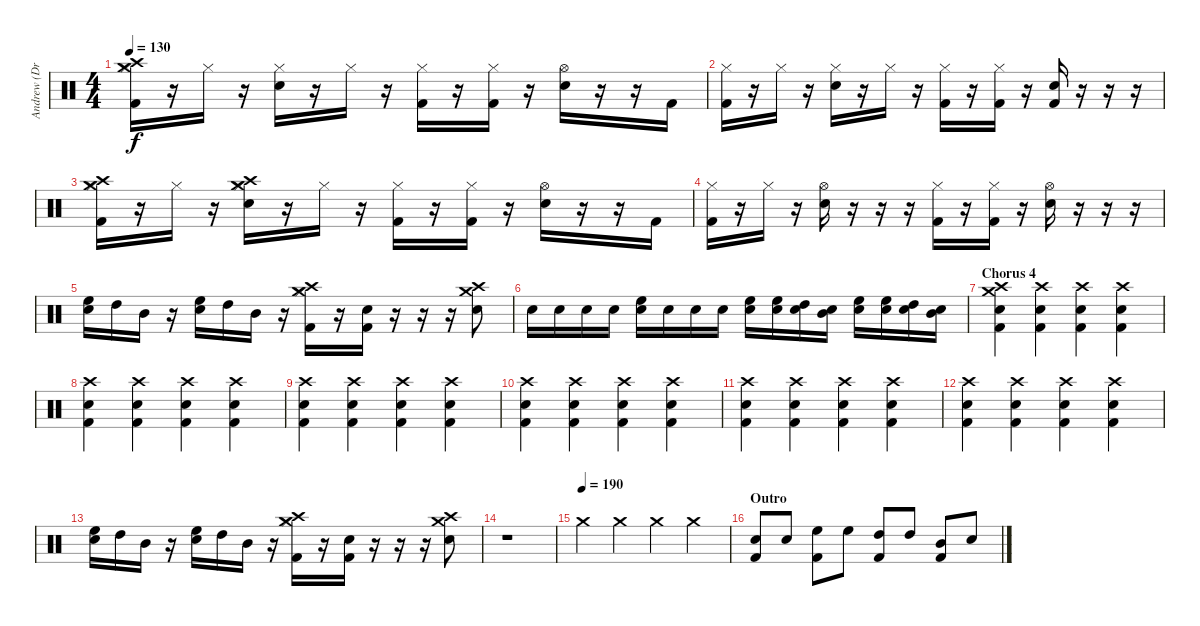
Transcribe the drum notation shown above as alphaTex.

\track ("Andrew (Drums)" "Andrew (Dr") {instrument percussion}
\staff {score}
\articulation defaults
\ts (4 4)
\tempo 130
\clef neutral
\ks c
("Crash high (hit)" "Crash medium (hit)" "Hi-Hat (closed)" "Kick (hit) 2").16{dy f} r.16 "Hi-Hat (closed)".16 r.16 ("Hi-Hat (closed)" "Snare (hit) 2").16 r.16 "Hi-Hat (closed)".16 r.16 ("Hi-Hat (closed)" "Kick (hit) 2").16 r.16 ("Hi-Hat (closed)" "Kick (hit) 2").16 r.16 ("Hi-Hat (open)" "Snare (hit) 2").16 r.16 r.16 "Kick (hit) 2".16 |
("Hi-Hat (closed)" "Kick (hit) 2").16 r.16 "Hi-Hat (closed)".16 r.16 ("Hi-Hat (closed)" "Snare (hit) 2").16 r.16 "Hi-Hat (closed)".16 r.16 ("Hi-Hat (closed)" "Kick (hit) 2").16 r.16 ("Hi-Hat (closed)" "Kick (hit) 2").16 r.16 ("Snare (hit) 2" "Kick (hit) 2").16 r.16 r.16 r.16 |
("Crash high (hit)" "Crash medium (hit)" "Hi-Hat (closed)" "Kick (hit) 2").16 r.16 "Hi-Hat (closed)".16 r.16 ("Crash high (hit)" "Crash medium (hit)" "Hi-Hat (closed)" "Snare (hit) 2").16 r.16 "Hi-Hat (closed)".16 r.16 ("Hi-Hat (closed)" "Kick (hit) 2").16 r.16 ("Hi-Hat (closed)" "Kick (hit) 2").16 r.16 ("Hi-Hat (open)" "Snare (hit) 2").16 r.16 r.16 "Kick (hit) 2".16 |
("Hi-Hat (closed)" "Kick (hit) 2").16 r.16 "Hi-Hat (closed)".16 r.16 ("Hi-Hat (open)" "Snare (hit) 2").16 r.16 r.16 r.16 ("Hi-Hat (closed)" "Kick (hit) 2").16 r.16 ("Hi-Hat (closed)" "Kick (hit) 2").16 r.16 ("Hi-Hat (open)" "Snare (hit) 2").16 r.16 r.16 r.16 |
("High Floor Tom (hit)" "Snare (hit) 2").16 "High Tom (hit)".16 "Mid Tom (hit)".16 r.16 ("High Floor Tom (hit)" "Snare (hit) 2").16 "High Tom (hit)".16 "Mid Tom (hit)".16 r.16 ("Crash high (hit)" "Crash medium (hit)" "Hi-Hat (closed)" "Kick (hit) 2").16 r.16 ("Kick (hit) 2" "Snare (hit) 2").16 r.16 r.16 r.16 ("Crash medium (hit)" "Crash high (hit)" "Snare (hit) 2").8 |
"Snare (hit) 2".16 "Snare (hit) 2".16 "Snare (hit) 2".16 "Snare (hit) 2".16 ("High Floor Tom (hit)" "Snare (hit) 2").16 "Snare (hit) 2".16 "Snare (hit) 2".16 "Snare (hit) 2".16 ("High Floor Tom (hit)" "Snare (hit) 2").16 ("High Floor Tom (hit)" "Snare (hit) 2").16 ("High Tom (hit)" "Snare (hit) 2").16 ("Mid Tom (hit)" "Snare (hit) 2").16 ("High Floor Tom (hit)" "Snare (hit) 2").16 ("High Floor Tom (hit)" "Snare (hit) 2").16 ("High Tom (hit)" "Snare (hit) 2").16 ("Mid Tom (hit)" "Snare (hit) 2").16 |
\section ("" "Chorus 4")
("Crash medium (hit)" "Crash high (hit)" "Snare (hit) 2" "Kick (hit) 2").4 ("Crash high (hit)" "Snare (hit) 2" "Kick (hit) 2").4 ("Crash high (hit)" "Snare (hit) 2" "Kick (hit) 2").4 ("Crash high (hit)" "Snare (hit) 2" "Kick (hit) 2").4 |
("Crash high (hit)" "Snare (hit) 2" "Kick (hit) 2").4 ("Crash high (hit)" "Snare (hit) 2" "Kick (hit) 2").4 ("Crash high (hit)" "Snare (hit) 2" "Kick (hit) 2").4 ("Crash high (hit)" "Snare (hit) 2" "Kick (hit) 2").4 |
("Crash high (hit)" "Snare (hit) 2" "Kick (hit) 2").4 ("Crash high (hit)" "Snare (hit) 2" "Kick (hit) 2").4 ("Crash high (hit)" "Snare (hit) 2" "Kick (hit) 2").4 ("Crash high (hit)" "Snare (hit) 2" "Kick (hit) 2").4 |
("Crash high (hit)" "Snare (hit) 2" "Kick (hit) 2").4 ("Crash high (hit)" "Snare (hit) 2" "Kick (hit) 2").4 ("Crash high (hit)" "Snare (hit) 2" "Kick (hit) 2").4 ("Crash high (hit)" "Snare (hit) 2" "Kick (hit) 2").4 |
("Crash high (hit)" "Snare (hit) 2" "Kick (hit) 2").4 ("Crash high (hit)" "Snare (hit) 2" "Kick (hit) 2").4 ("Crash high (hit)" "Snare (hit) 2" "Kick (hit) 2").4 ("Crash high (hit)" "Snare (hit) 2" "Kick (hit) 2").4 |
("Crash high (hit)" "Snare (hit) 2" "Kick (hit) 2").4 ("Crash high (hit)" "Snare (hit) 2" "Kick (hit) 2").4 ("Crash high (hit)" "Snare (hit) 2" "Kick (hit) 2").4 ("Crash high (hit)" "Snare (hit) 2" "Kick (hit) 2").4 |
("High Floor Tom (hit)" "Snare (hit) 2").16 "High Tom (hit)".16 "Mid Tom (hit)".16 r.16 ("High Floor Tom (hit)" "Snare (hit) 2").16 "High Tom (hit)".16 "Mid Tom (hit)".16 r.16 ("Crash high (hit)" "Crash medium (hit)" "Hi-Hat (closed)" "Kick (hit) 2").16 r.16 ("Kick (hit) 2" "Snare (hit) 2").16 r.16 r.16 r.16 ("Crash medium (hit)" "Crash high (hit)" "Snare (hit) 2").8 |
r.1 |
\tempo (190)
"Crash medium (hit)".4 "Crash medium (hit)".4 "Crash medium (hit)".4 "Crash medium (hit)".4 |
\section ("" "Outro")
("Snare (hit) 2" "Kick (hit) 2").8 "Snare (hit) 2".8 ("High Floor Tom (hit)" "Kick (hit) 2").8 "High Floor Tom (hit)".8 ("High Tom (hit)" "Kick (hit) 2").8 "High Tom (hit)".8 ("Mid Tom (hit)" "Kick (hit) 2").8 "Snare (hit) 2".8
